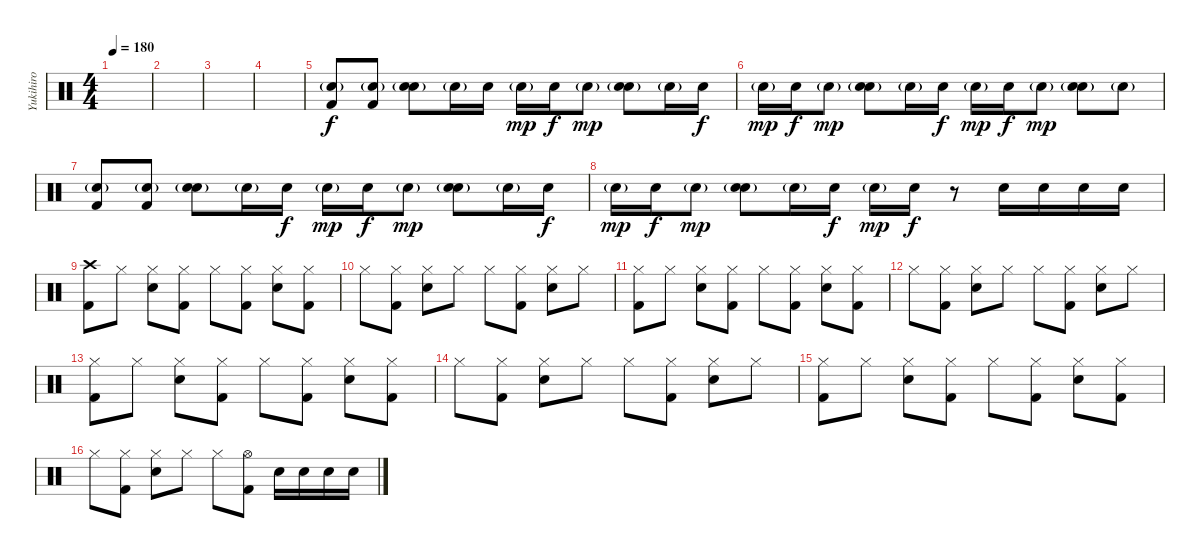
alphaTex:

\track ("Yukihiro" "Yukihiro") {instrument percussion}
\staff {score}
\articulation defaults
\ts (4 4)
\tempo 180
\clef neutral
\ks c
|
|
|
|
("Electric Snare (hit)"{g} "Kick (hit) 2").8{volume 12} ("Electric Snare (hit)"{g} "Kick (hit) 2").8 ("Electric Snare (hit)"{g} "Electric Snare (hit)").8 "Electric Snare (hit)"{g}.16 "Electric Snare (hit)".16{dy f} "Electric Snare (hit)"{g}.16{dy mp} "Electric Snare (hit)".16{dy f} "Electric Snare (hit)"{g}.8{dy mp} ("Electric Snare (hit)"{g} "Electric Snare (hit)").8 "Electric Snare (hit)"{g}.16 "Electric Snare (hit)".16{dy f} |
"Electric Snare (hit)"{g}.16{dy mp} "Electric Snare (hit)".16{dy f} "Electric Snare (hit)"{g}.8{dy mp} ("Electric Snare (hit)"{g} "Electric Snare (hit)").8 "Electric Snare (hit)"{g}.16 "Electric Snare (hit)".16{dy f} "Electric Snare (hit)"{g}.16{dy mp} "Electric Snare (hit)".16{dy f} "Electric Snare (hit)"{g}.8{dy mp} ("Electric Snare (hit)"{g} "Electric Snare (hit)").8 "Electric Snare (hit)"{g}.8 |
("Electric Snare (hit)"{g} "Kick (hit) 2").8 ("Electric Snare (hit)"{g} "Kick (hit) 2").8 ("Electric Snare (hit)"{g} "Electric Snare (hit)").8 "Electric Snare (hit)"{g}.16 "Electric Snare (hit)".16{dy f} "Electric Snare (hit)"{g}.16{dy mp} "Electric Snare (hit)".16{dy f} "Electric Snare (hit)"{g}.8{dy mp} ("Electric Snare (hit)"{g} "Electric Snare (hit)").8 "Electric Snare (hit)"{g}.16 "Electric Snare (hit)".16{dy f} |
"Electric Snare (hit)"{g}.16{dy mp} "Electric Snare (hit)".16{dy f} "Electric Snare (hit)"{g}.8{dy mp} ("Electric Snare (hit)"{g} "Electric Snare (hit)").8 "Electric Snare (hit)"{g}.16 "Electric Snare (hit)".16{dy f} "Electric Snare (hit)"{g}.16{dy mp} "Electric Snare (hit)".16{dy f} r.8{volume 16} "Electric Snare (hit)".16 "Electric Snare (hit)".16 "Electric Snare (hit)".16 "Electric Snare (hit)".16 |
("Crash high (hit)" "Kick (hit) 2").8 "Hi-Hat (closed)".8 ("Hi-Hat (closed)" "Electric Snare (hit)").8 ("Hi-Hat (closed)" "Kick (hit) 2").8 "Hi-Hat (closed)".8 ("Hi-Hat (closed)" "Kick (hit) 2").8 ("Hi-Hat (closed)" "Electric Snare (hit)").8 ("Hi-Hat (closed)" "Kick (hit) 2").8 |
"Hi-Hat (closed)".8 ("Hi-Hat (closed)" "Kick (hit) 2").8 ("Hi-Hat (closed)" "Electric Snare (hit)").8 "Hi-Hat (closed)".8 "Hi-Hat (closed)".8 ("Hi-Hat (closed)" "Kick (hit) 2").8 ("Hi-Hat (closed)" "Electric Snare (hit)").8 "Hi-Hat (closed)".8 |
("Hi-Hat (closed)" "Kick (hit) 2").8 "Hi-Hat (closed)".8 ("Hi-Hat (closed)" "Electric Snare (hit)").8 ("Hi-Hat (closed)" "Kick (hit) 2").8 "Hi-Hat (closed)".8 ("Hi-Hat (closed)" "Kick (hit) 2").8 ("Hi-Hat (closed)" "Electric Snare (hit)").8 ("Hi-Hat (closed)" "Kick (hit) 2").8 |
"Hi-Hat (closed)".8 ("Hi-Hat (closed)" "Kick (hit) 2").8 ("Hi-Hat (closed)" "Electric Snare (hit)").8 "Hi-Hat (closed)".8 "Hi-Hat (closed)".8 ("Hi-Hat (closed)" "Kick (hit) 2").8 ("Hi-Hat (closed)" "Electric Snare (hit)").8 "Hi-Hat (closed)".8 |
("Hi-Hat (closed)" "Kick (hit) 2").8 "Hi-Hat (closed)".8 ("Hi-Hat (closed)" "Electric Snare (hit)").8 ("Hi-Hat (closed)" "Kick (hit) 2").8 "Hi-Hat (closed)".8 ("Hi-Hat (closed)" "Kick (hit) 2").8 ("Hi-Hat (closed)" "Electric Snare (hit)").8 ("Hi-Hat (closed)" "Kick (hit) 2").8 |
"Hi-Hat (closed)".8 ("Hi-Hat (closed)" "Kick (hit) 2").8 ("Hi-Hat (closed)" "Electric Snare (hit)").8 "Hi-Hat (closed)".8 "Hi-Hat (closed)".8 ("Hi-Hat (closed)" "Kick (hit) 2").8 ("Hi-Hat (closed)" "Electric Snare (hit)").8 "Hi-Hat (closed)".8 |
("Hi-Hat (closed)" "Kick (hit) 2").8 "Hi-Hat (closed)".8 ("Hi-Hat (closed)" "Electric Snare (hit)").8 ("Hi-Hat (closed)" "Kick (hit) 2").8 "Hi-Hat (closed)".8 ("Hi-Hat (closed)" "Kick (hit) 2").8 ("Hi-Hat (closed)" "Electric Snare (hit)").8 ("Hi-Hat (closed)" "Kick (hit) 2").8 |
"Hi-Hat (closed)".8 ("Hi-Hat (closed)" "Kick (hit) 2").8 ("Hi-Hat (closed)" "Electric Snare (hit)").8 "Hi-Hat (closed)".8 "Hi-Hat (closed)".8 ("Hi-Hat (open)" "Kick (hit) 2").8 "Electric Snare (hit)".16 "Electric Snare (hit)".16 "Electric Snare (hit)".16 "Electric Snare (hit)".16
